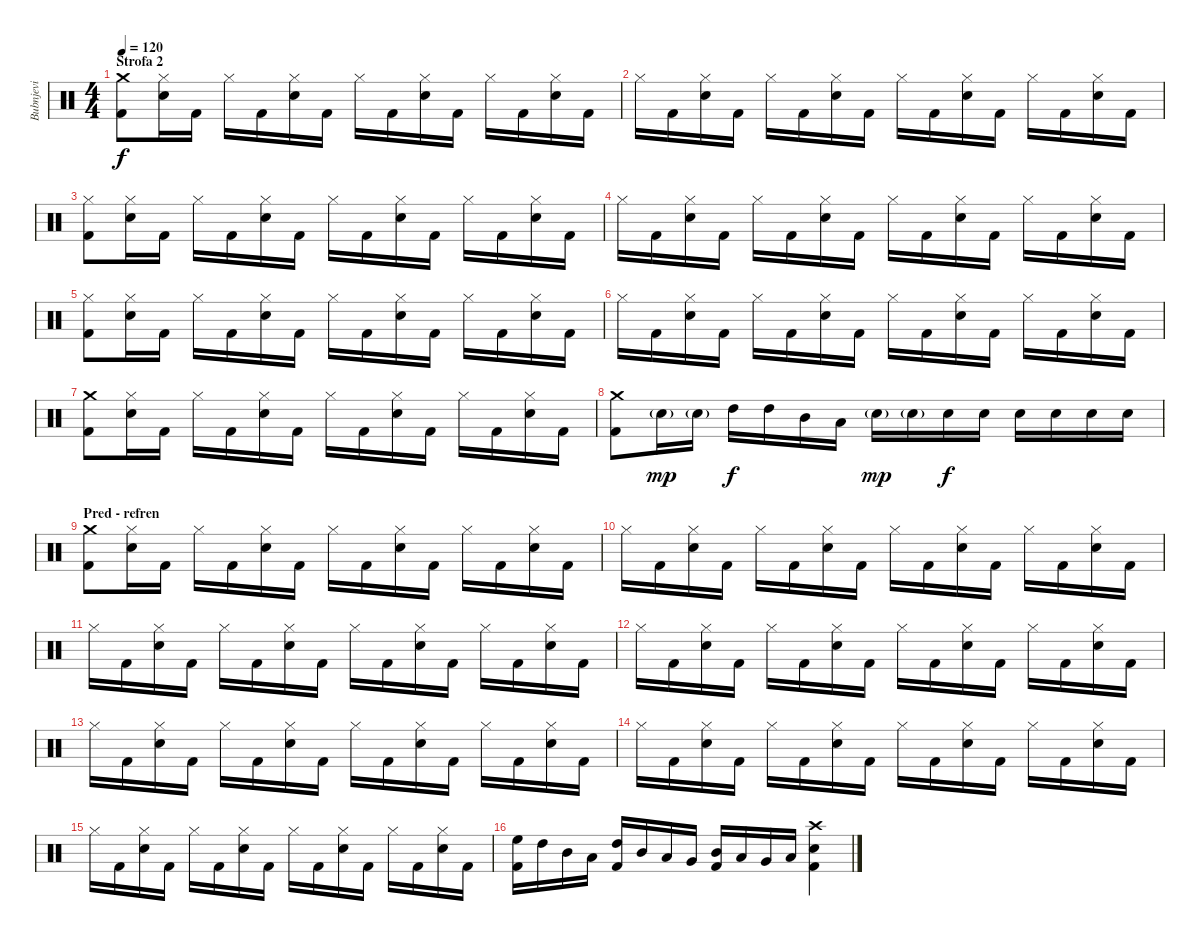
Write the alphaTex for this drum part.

\track ("Bubnjevi" "Bubnjevi") {instrument percussion}
\staff {score}
\articulation defaults
\ts (4 4)
\section ("" "Strofa 2")
\tempo 120
\clef neutral
\ks c
("Crash medium (hit)" "Kick (hit) 2").8{dy f} ("Hi-Hat (closed)" "Snare (hit) 2").16 "Kick (hit) 2".16 "Hi-Hat (closed)".16 "Kick (hit) 2".16 ("Hi-Hat (closed)" "Snare (hit) 2").16 "Kick (hit) 2".16 "Hi-Hat (closed)".16 "Kick (hit) 2".16 ("Hi-Hat (closed)" "Snare (hit) 2").16 "Kick (hit) 2".16 "Hi-Hat (closed)".16 "Kick (hit) 2".16 ("Hi-Hat (closed)" "Snare (hit) 2").16 "Kick (hit) 2".16 |
"Hi-Hat (closed)".16 "Kick (hit) 2".16 ("Hi-Hat (closed)" "Snare (hit) 2").16 "Kick (hit) 2".16 "Hi-Hat (closed)".16 "Kick (hit) 2".16 ("Hi-Hat (closed)" "Snare (hit) 2").16 "Kick (hit) 2".16 "Hi-Hat (closed)".16 "Kick (hit) 2".16 ("Hi-Hat (closed)" "Snare (hit) 2").16 "Kick (hit) 2".16 "Hi-Hat (closed)".16 "Kick (hit) 2".16 ("Hi-Hat (closed)" "Snare (hit) 2").16 "Kick (hit) 2".16 |
("Hi-Hat (closed)" "Kick (hit) 2").8 ("Hi-Hat (closed)" "Snare (hit) 2").16 "Kick (hit) 2".16 "Hi-Hat (closed)".16 "Kick (hit) 2".16 ("Hi-Hat (closed)" "Snare (hit) 2").16 "Kick (hit) 2".16 "Hi-Hat (closed)".16 "Kick (hit) 2".16 ("Hi-Hat (closed)" "Snare (hit) 2").16 "Kick (hit) 2".16 "Hi-Hat (closed)".16 "Kick (hit) 2".16 ("Hi-Hat (closed)" "Snare (hit) 2").16 "Kick (hit) 2".16 |
"Hi-Hat (closed)".16 "Kick (hit) 2".16 ("Hi-Hat (closed)" "Snare (hit) 2").16 "Kick (hit) 2".16 "Hi-Hat (closed)".16 "Kick (hit) 2".16 ("Hi-Hat (closed)" "Snare (hit) 2").16 "Kick (hit) 2".16 "Hi-Hat (closed)".16 "Kick (hit) 2".16 ("Hi-Hat (closed)" "Snare (hit) 2").16 "Kick (hit) 2".16 "Hi-Hat (closed)".16 "Kick (hit) 2".16 ("Hi-Hat (closed)" "Snare (hit) 2").16 "Kick (hit) 2".16 |
("Hi-Hat (closed)" "Kick (hit) 2").8 ("Hi-Hat (closed)" "Snare (hit) 2").16 "Kick (hit) 2".16 "Hi-Hat (closed)".16 "Kick (hit) 2".16 ("Hi-Hat (closed)" "Snare (hit) 2").16 "Kick (hit) 2".16 "Hi-Hat (closed)".16 "Kick (hit) 2".16 ("Hi-Hat (closed)" "Snare (hit) 2").16 "Kick (hit) 2".16 "Hi-Hat (closed)".16 "Kick (hit) 2".16 ("Hi-Hat (closed)" "Snare (hit) 2").16 "Kick (hit) 2".16 |
"Hi-Hat (closed)".16 "Kick (hit) 2".16 ("Hi-Hat (closed)" "Snare (hit) 2").16 "Kick (hit) 2".16 "Hi-Hat (closed)".16 "Kick (hit) 2".16 ("Hi-Hat (closed)" "Snare (hit) 2").16 "Kick (hit) 2".16 "Hi-Hat (closed)".16 "Kick (hit) 2".16 ("Hi-Hat (closed)" "Snare (hit) 2").16 "Kick (hit) 2".16 "Hi-Hat (closed)".16 "Kick (hit) 2".16 ("Hi-Hat (closed)" "Snare (hit) 2").16 "Kick (hit) 2".16 |
("Crash medium (hit)" "Kick (hit) 2").8 ("Hi-Hat (closed)" "Snare (hit) 2").16 "Kick (hit) 2".16 "Hi-Hat (closed)".16 "Kick (hit) 2".16 ("Hi-Hat (closed)" "Snare (hit) 2").16 "Kick (hit) 2".16 "Hi-Hat (closed)".16 "Kick (hit) 2".16 ("Hi-Hat (closed)" "Snare (hit) 2").16 "Kick (hit) 2".16 "Hi-Hat (closed)".16 "Kick (hit) 2".16 ("Hi-Hat (closed)" "Snare (hit) 2").16 "Kick (hit) 2".16 |
("Crash medium (hit)" "Kick (hit) 2").8 "Snare (hit) 2"{g}.16{dy mp} "Snare (hit) 2"{g}.16 "High Tom (hit)".16{dy f} "High Tom (hit)".16 "Mid Tom (hit)".16 "Low Tom (hit)".16 "Snare (hit) 2"{g}.16{dy mp} "Snare (hit) 2"{g}.16 "Snare (hit) 2".16{dy f} "Snare (hit) 2".16 "Snare (hit) 2".16 "Snare (hit) 2".16 "Snare (hit) 2".16 "Snare (hit) 2".16 |
\section ("" "Pred - refren")
("Crash medium (hit)" "Kick (hit) 2").8 ("Hi-Hat (closed)" "Snare (hit) 2").16 "Kick (hit) 2".16 "Hi-Hat (closed)".16 "Kick (hit) 2".16 ("Hi-Hat (closed)" "Snare (hit) 2").16 "Kick (hit) 2".16 "Hi-Hat (closed)".16 "Kick (hit) 2".16 ("Hi-Hat (closed)" "Snare (hit) 2").16 "Kick (hit) 2".16 "Hi-Hat (closed)".16 "Kick (hit) 2".16 ("Hi-Hat (closed)" "Snare (hit) 2").16 "Kick (hit) 2".16 |
"Hi-Hat (closed)".16 "Kick (hit) 2".16 ("Hi-Hat (closed)" "Snare (hit) 2").16 "Kick (hit) 2".16 "Hi-Hat (closed)".16 "Kick (hit) 2".16 ("Hi-Hat (closed)" "Snare (hit) 2").16 "Kick (hit) 2".16 "Hi-Hat (closed)".16 "Kick (hit) 2".16 ("Hi-Hat (closed)" "Snare (hit) 2").16 "Kick (hit) 2".16 "Hi-Hat (closed)".16 "Kick (hit) 2".16 ("Hi-Hat (closed)" "Snare (hit) 2").16 "Kick (hit) 2".16 |
"Hi-Hat (closed)".16 "Kick (hit) 2".16 ("Hi-Hat (closed)" "Snare (hit) 2").16 "Kick (hit) 2".16 "Hi-Hat (closed)".16 "Kick (hit) 2".16 ("Hi-Hat (closed)" "Snare (hit) 2").16 "Kick (hit) 2".16 "Hi-Hat (closed)".16 "Kick (hit) 2".16 ("Hi-Hat (closed)" "Snare (hit) 2").16 "Kick (hit) 2".16 "Hi-Hat (closed)".16 "Kick (hit) 2".16 ("Hi-Hat (closed)" "Snare (hit) 2").16 "Kick (hit) 2".16 |
"Hi-Hat (closed)".16 "Kick (hit) 2".16 ("Hi-Hat (closed)" "Snare (hit) 2").16 "Kick (hit) 2".16 "Hi-Hat (closed)".16 "Kick (hit) 2".16 ("Hi-Hat (closed)" "Snare (hit) 2").16 "Kick (hit) 2".16 "Hi-Hat (closed)".16 "Kick (hit) 2".16 ("Hi-Hat (closed)" "Snare (hit) 2").16 "Kick (hit) 2".16 "Hi-Hat (closed)".16 "Kick (hit) 2".16 ("Hi-Hat (closed)" "Snare (hit) 2").16 "Kick (hit) 2".16 |
"Hi-Hat (closed)".16 "Kick (hit) 2".16 ("Hi-Hat (closed)" "Snare (hit) 2").16 "Kick (hit) 2".16 "Hi-Hat (closed)".16 "Kick (hit) 2".16 ("Hi-Hat (closed)" "Snare (hit) 2").16 "Kick (hit) 2".16 "Hi-Hat (closed)".16 "Kick (hit) 2".16 ("Hi-Hat (closed)" "Snare (hit) 2").16 "Kick (hit) 2".16 "Hi-Hat (closed)".16 "Kick (hit) 2".16 ("Hi-Hat (closed)" "Snare (hit) 2").16 "Kick (hit) 2".16 |
"Hi-Hat (closed)".16 "Kick (hit) 2".16 ("Hi-Hat (closed)" "Snare (hit) 2").16 "Kick (hit) 2".16 "Hi-Hat (closed)".16 "Kick (hit) 2".16 ("Hi-Hat (closed)" "Snare (hit) 2").16 "Kick (hit) 2".16 "Hi-Hat (closed)".16 "Kick (hit) 2".16 ("Hi-Hat (closed)" "Snare (hit) 2").16 "Kick (hit) 2".16 "Hi-Hat (closed)".16 "Kick (hit) 2".16 ("Hi-Hat (closed)" "Snare (hit) 2").16 "Kick (hit) 2".16 |
"Hi-Hat (closed)".16 "Kick (hit) 2".16 ("Hi-Hat (closed)" "Snare (hit) 2").16 "Kick (hit) 2".16 "Hi-Hat (closed)".16 "Kick (hit) 2".16 ("Hi-Hat (closed)" "Snare (hit) 2").16 "Kick (hit) 2".16 "Hi-Hat (closed)".16 "Kick (hit) 2".16 ("Hi-Hat (closed)" "Snare (hit) 2").16 "Kick (hit) 2".16 "Hi-Hat (closed)".16 "Kick (hit) 2".16 ("Hi-Hat (closed)" "Snare (hit) 2").16 "Kick (hit) 2".16 |
("High Floor Tom (hit)" "Kick (hit) 2").16 "High Tom (hit)".16 "Mid Tom (hit)".16 "Low Tom (hit)".16 ("High Tom (hit)" "Kick (hit) 2").16 "Mid Tom (hit)".16 "Low Tom (hit)".16 "Very Low Tom (hit)".16 ("Mid Tom (hit)" "Kick (hit) 2").16 "Low Tom (hit)".16 "Very Low Tom (hit)".16 "Low Floor Tom (hit)".16 ("Crash high (hit)" "Snare (hit) 2" "Kick (hit) 2").4
